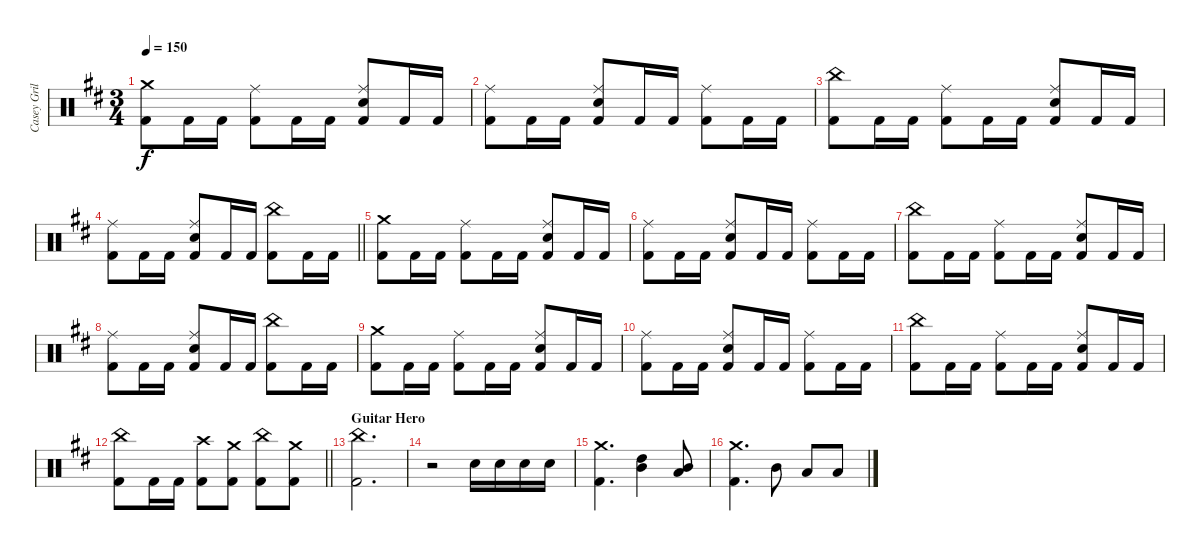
\track ("Casey Grillo" "Casey Gril") {instrument percussion}
\staff {score}
\articulation defaults
\ts (3 4)
\tempo 150
\clef neutral
\ks bminor
("Crash medium (hit)" "Kick (hit) 2").8{dy f} "Kick (hit) 2".16 "Kick (hit) 2".16 ("Ride (middle)" "Kick (hit) 2").8 "Kick (hit) 2".16 "Kick (hit) 2".16 ("Ride (middle)" "Electric Snare (hit)" "Kick (hit) 2").8 "Kick (hit) 2".16 "Kick (hit) 2".16 |
("Ride (middle)" "Kick (hit) 2").8 "Kick (hit) 2".16 "Kick (hit) 2".16 ("Ride (middle)" "Electric Snare (hit)" "Kick (hit) 2").8 "Kick (hit) 2".16 "Kick (hit) 2".16 ("Ride (middle)" "Kick (hit) 2").8 "Kick (hit) 2".16 "Kick (hit) 2".16 |
("China (hit)" "Kick (hit) 2").8 "Kick (hit) 2".16 "Kick (hit) 2".16 ("Ride (middle)" "Kick (hit) 2").8 "Kick (hit) 2".16 "Kick (hit) 2".16 ("Ride (middle)" "Electric Snare (hit)" "Kick (hit) 2").8 "Kick (hit) 2".16 "Kick (hit) 2".16 |
\barLineRight lightlight
("Ride (middle)" "Kick (hit) 2").8 "Kick (hit) 2".16 "Kick (hit) 2".16 ("Ride (middle)" "Electric Snare (hit)" "Kick (hit) 2").8 "Kick (hit) 2".16 "Kick (hit) 2".16 ("China (hit)" "Kick (hit) 2").8 "Kick (hit) 2".16 "Kick (hit) 2".16 |
("Crash medium (hit)" "Kick (hit) 2").8 "Kick (hit) 2".16 "Kick (hit) 2".16 ("Ride (middle)" "Kick (hit) 2").8 "Kick (hit) 2".16 "Kick (hit) 2".16 ("Ride (middle)" "Electric Snare (hit)" "Kick (hit) 2").8 "Kick (hit) 2".16 "Kick (hit) 2".16 |
("Ride (middle)" "Kick (hit) 2").8 "Kick (hit) 2".16 "Kick (hit) 2".16 ("Ride (middle)" "Electric Snare (hit)" "Kick (hit) 2").8 "Kick (hit) 2".16 "Kick (hit) 2".16 ("Ride (middle)" "Kick (hit) 2").8 "Kick (hit) 2".16 "Kick (hit) 2".16 |
("China (hit)" "Kick (hit) 2").8 "Kick (hit) 2".16 "Kick (hit) 2".16 ("Ride (middle)" "Kick (hit) 2").8 "Kick (hit) 2".16 "Kick (hit) 2".16 ("Ride (middle)" "Electric Snare (hit)" "Kick (hit) 2").8 "Kick (hit) 2".16 "Kick (hit) 2".16 |
("Ride (middle)" "Kick (hit) 2").8 "Kick (hit) 2".16 "Kick (hit) 2".16 ("Ride (middle)" "Electric Snare (hit)" "Kick (hit) 2").8 "Kick (hit) 2".16 "Kick (hit) 2".16 ("China (hit)" "Kick (hit) 2").8 "Kick (hit) 2".16 "Kick (hit) 2".16 |
("Crash medium (hit)" "Kick (hit) 2").8 "Kick (hit) 2".16 "Kick (hit) 2".16 ("Ride (middle)" "Kick (hit) 2").8 "Kick (hit) 2".16 "Kick (hit) 2".16 ("Ride (middle)" "Electric Snare (hit)" "Kick (hit) 2").8 "Kick (hit) 2".16 "Kick (hit) 2".16 |
("Ride (middle)" "Kick (hit) 2").8 "Kick (hit) 2".16 "Kick (hit) 2".16 ("Ride (middle)" "Electric Snare (hit)" "Kick (hit) 2").8 "Kick (hit) 2".16 "Kick (hit) 2".16 ("Ride (middle)" "Kick (hit) 2").8 "Kick (hit) 2".16 "Kick (hit) 2".16 |
("China (hit)" "Kick (hit) 2").8 "Kick (hit) 2".16 "Kick (hit) 2".16 ("Ride (middle)" "Kick (hit) 2").8 "Kick (hit) 2".16 "Kick (hit) 2".16 ("Ride (middle)" "Electric Snare (hit)" "Kick (hit) 2").8 "Kick (hit) 2".16 "Kick (hit) 2".16 |
\barLineRight lightlight
("China (hit)" "Kick (hit) 2").8 "Kick (hit) 2".16 "Kick (hit) 2".16 ("Crash high (hit)" "Kick (hit) 2").8 ("Crash medium (hit)" "Kick (hit) 2").8 ("China (hit)" "Kick (hit) 2").8 ("Crash medium (hit)" "Kick (hit) 2").8 |
\section ("" "Guitar Hero")
("China (hit)" "Kick (hit) 2").2{d} |
r.2 "Electric Snare (hit)".16 "Electric Snare (hit)".16 "Electric Snare (hit)".16 "Electric Snare (hit)".16 |
("Crash medium (hit)" "Kick (hit) 2").4{d} ("High Tom (hit)" "Mid Tom (hit)").4 ("Mid Tom (hit)" "Low Tom (hit)").8 |
("Crash medium (hit)" "Kick (hit) 2").4{d} "Mid Tom (hit)".8 "Low Tom (hit)".8 "Low Tom (hit)".8
